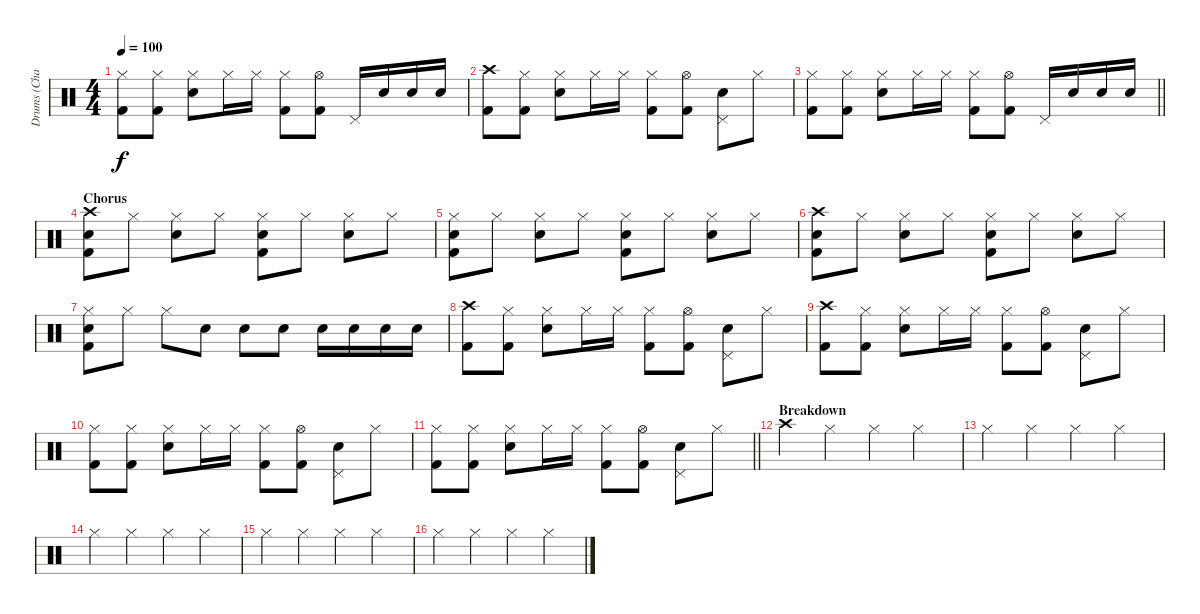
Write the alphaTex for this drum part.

\track ("Drums (Charlie)" "Drums (Cha") {instrument percussion}
\staff {score}
\articulation defaults
\ts (4 4)
\tempo 100
\clef neutral
\ks c
("Hi-Hat (closed)" "Kick (hit) 2").8{dy f} ("Hi-Hat (closed)" "Kick (hit) 2").8 ("Hi-Hat (closed)" "Electric Snare (hit)").8 "Hi-Hat (closed)".16 "Hi-Hat (closed)".16 ("Hi-Hat (closed)" "Kick (hit) 2").8 ("Hi-Hat (open)" "Kick (hit) 2").8 "Pedal Hi-Hat (hit)".16 "Electric Snare (hit)".16 "Electric Snare (hit)".16 "Electric Snare (hit)".16 |
("Crash high (hit)" "Kick (hit) 2").8 ("Hi-Hat (closed)" "Kick (hit) 2").8 ("Hi-Hat (closed)" "Electric Snare (hit)").8 "Hi-Hat (closed)".16 "Hi-Hat (closed)".16 ("Hi-Hat (closed)" "Kick (hit) 2").8 ("Hi-Hat (open)" "Kick (hit) 2").8 ("Pedal Hi-Hat (hit)" "Electric Snare (hit)").8 "Hi-Hat (closed)".8 |
\barLineRight lightlight
("Hi-Hat (closed)" "Kick (hit) 2").8 ("Hi-Hat (closed)" "Kick (hit) 2").8 ("Hi-Hat (closed)" "Electric Snare (hit)").8 "Hi-Hat (closed)".16 "Hi-Hat (closed)".16 ("Hi-Hat (closed)" "Kick (hit) 2").8 ("Hi-Hat (open)" "Kick (hit) 2").8 "Pedal Hi-Hat (hit)".16 "Electric Snare (hit)".16 "Electric Snare (hit)".16 "Electric Snare (hit)".16 |
\section ("" "Chorus")
("Crash high (hit)" "Electric Snare (hit)" "Kick (hit) 2").8 "Hi-Hat (closed)".8 ("Hi-Hat (closed)" "Electric Snare (hit)").8 "Hi-Hat (closed)".8 ("Hi-Hat (closed)" "Electric Snare (hit)" "Kick (hit) 2").8 "Hi-Hat (closed)".8 ("Hi-Hat (closed)" "Electric Snare (hit)").8 "Hi-Hat (closed)".8 |
("Hi-Hat (closed)" "Electric Snare (hit)" "Kick (hit) 2").8 "Hi-Hat (closed)".8 ("Hi-Hat (closed)" "Electric Snare (hit)").8 "Hi-Hat (closed)".8 ("Hi-Hat (closed)" "Electric Snare (hit)" "Kick (hit) 2").8 "Hi-Hat (closed)".8 ("Hi-Hat (closed)" "Electric Snare (hit)").8 "Hi-Hat (closed)".8 |
("Crash high (hit)" "Electric Snare (hit)" "Kick (hit) 2").8 "Hi-Hat (closed)".8 ("Hi-Hat (closed)" "Electric Snare (hit)").8 "Hi-Hat (closed)".8 ("Hi-Hat (closed)" "Electric Snare (hit)" "Kick (hit) 2").8 "Hi-Hat (closed)".8 ("Hi-Hat (closed)" "Electric Snare (hit)").8 "Hi-Hat (closed)".8 |
("Hi-Hat (closed)" "Electric Snare (hit)" "Kick (hit) 2").8 "Hi-Hat (closed)".8 "Hi-Hat (closed)".8 "Electric Snare (hit)".8 "Electric Snare (hit)".8 "Electric Snare (hit)".8 "Electric Snare (hit)".16 "Electric Snare (hit)".16 "Electric Snare (hit)".16 "Electric Snare (hit)".16 |
("Crash high (hit)" "Kick (hit) 2").8 ("Hi-Hat (closed)" "Kick (hit) 2").8 ("Hi-Hat (closed)" "Electric Snare (hit)").8 "Hi-Hat (closed)".16 "Hi-Hat (closed)".16 ("Hi-Hat (closed)" "Kick (hit) 2").8 ("Hi-Hat (open)" "Kick (hit) 2").8 ("Pedal Hi-Hat (hit)" "Electric Snare (hit)").8 "Hi-Hat (closed)".8 |
("Crash high (hit)" "Kick (hit) 2").8 ("Hi-Hat (closed)" "Kick (hit) 2").8 ("Hi-Hat (closed)" "Electric Snare (hit)").8 "Hi-Hat (closed)".16 "Hi-Hat (closed)".16 ("Hi-Hat (closed)" "Kick (hit) 2").8 ("Hi-Hat (open)" "Kick (hit) 2").8 ("Pedal Hi-Hat (hit)" "Electric Snare (hit)").8 "Hi-Hat (closed)".8 |
("Hi-Hat (closed)" "Kick (hit) 2").8 ("Hi-Hat (closed)" "Kick (hit) 2").8 ("Hi-Hat (closed)" "Electric Snare (hit)").8 "Hi-Hat (closed)".16 "Hi-Hat (closed)".16 ("Hi-Hat (closed)" "Kick (hit) 2").8 ("Hi-Hat (open)" "Kick (hit) 2").8 ("Pedal Hi-Hat (hit)" "Electric Snare (hit)").8 "Hi-Hat (closed)".8 |
\barLineRight lightlight
("Hi-Hat (closed)" "Kick (hit) 2").8 ("Hi-Hat (closed)" "Kick (hit) 2").8 ("Hi-Hat (closed)" "Electric Snare (hit)").8 "Hi-Hat (closed)".16 "Hi-Hat (closed)".16 ("Hi-Hat (closed)" "Kick (hit) 2").8 ("Hi-Hat (open)" "Kick (hit) 2").8 ("Pedal Hi-Hat (hit)" "Electric Snare (hit)").8 "Hi-Hat (closed)".8 |
\section ("" "Breakdown")
"Crash high (hit)".4 "Hi-Hat (closed)".4 "Hi-Hat (closed)".4 "Hi-Hat (closed)".4 |
"Hi-Hat (closed)".4 "Hi-Hat (closed)".4 "Hi-Hat (closed)".4 "Hi-Hat (closed)".4 |
"Hi-Hat (closed)".4 "Hi-Hat (closed)".4 "Hi-Hat (closed)".4 "Hi-Hat (closed)".4 |
"Hi-Hat (closed)".4 "Hi-Hat (closed)".4 "Hi-Hat (closed)".4 "Hi-Hat (closed)".4 |
"Hi-Hat (closed)".4 "Hi-Hat (closed)".4 "Hi-Hat (closed)".4 "Hi-Hat (closed)".4
